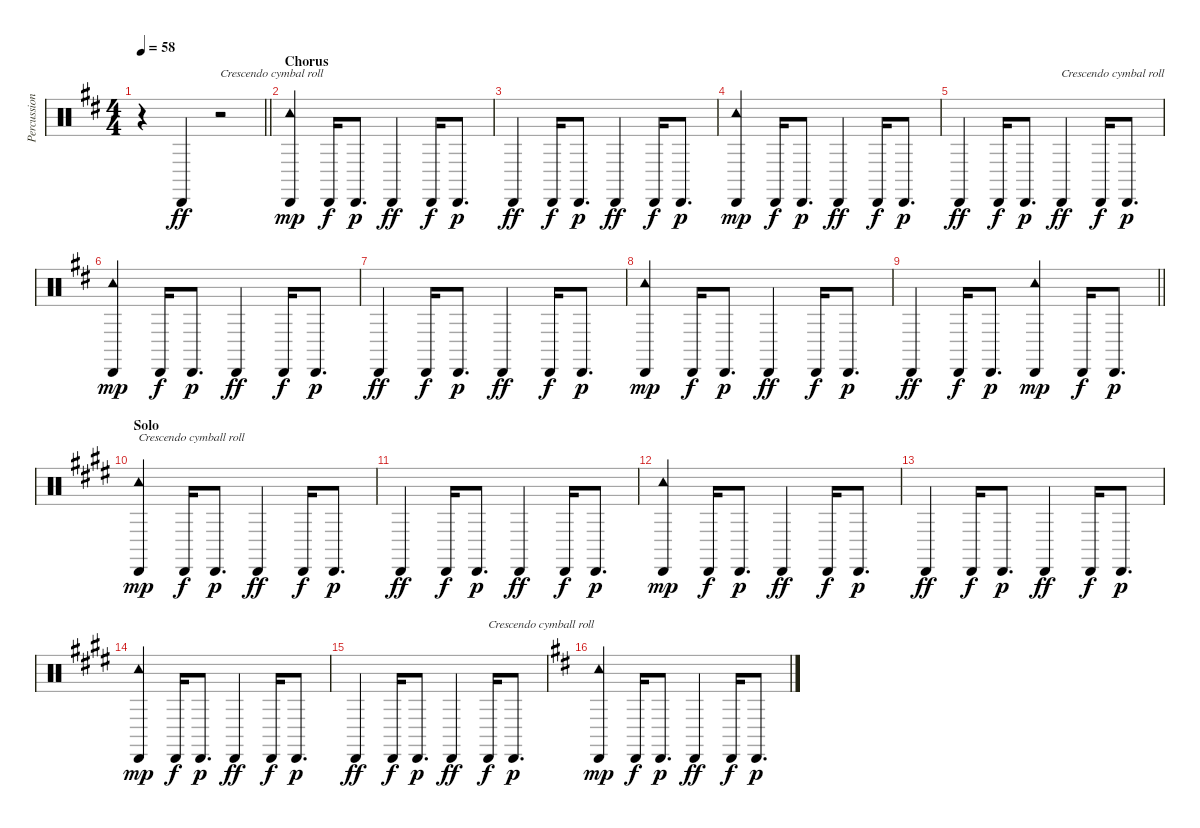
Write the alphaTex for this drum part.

\track ("Percussion" "Percussion") {instrument percussion}
\staff {score}
\articulation defaults
\ts (4 4)
\tempo 58
\clef neutral
\barLineRight lightlight
\ks bminor
r.4{dy f} "Cabasa (hit)".4{dy ff} r.2{txt "Crescendo cymbal roll"} |
\section ("" "Chorus")
("Cabasa (hit)" "Tambourine (hit)").4{dy mp} "Cabasa (hit)".16{dy f} "Cabasa (hit)".8{d dy p} "Cabasa (hit)".4{dy ff} "Cabasa (hit)".16{dy f} "Cabasa (hit)".8{d dy p} |
"Cabasa (hit)".4{dy ff} "Cabasa (hit)".16{dy f} "Cabasa (hit)".8{d dy p} "Cabasa (hit)".4{dy ff} "Cabasa (hit)".16{dy f} "Cabasa (hit)".8{d dy p} |
("Cabasa (hit)" "Tambourine (hit)").4{dy mp} "Cabasa (hit)".16{dy f} "Cabasa (hit)".8{d dy p} "Cabasa (hit)".4{dy ff} "Cabasa (hit)".16{dy f} "Cabasa (hit)".8{d dy p} |
"Cabasa (hit)".4{dy ff} "Cabasa (hit)".16{dy f} "Cabasa (hit)".8{d dy p} "Cabasa (hit)".4{txt "Crescendo cymbal roll" dy ff} "Cabasa (hit)".16{dy f} "Cabasa (hit)".8{d dy p} |
("Cabasa (hit)" "Tambourine (hit)").4{dy mp} "Cabasa (hit)".16{dy f} "Cabasa (hit)".8{d dy p} "Cabasa (hit)".4{dy ff} "Cabasa (hit)".16{dy f} "Cabasa (hit)".8{d dy p} |
"Cabasa (hit)".4{dy ff} "Cabasa (hit)".16{dy f} "Cabasa (hit)".8{d dy p} "Cabasa (hit)".4{dy ff} "Cabasa (hit)".16{dy f} "Cabasa (hit)".8{d dy p} |
("Cabasa (hit)" "Tambourine (hit)").4{dy mp} "Cabasa (hit)".16{dy f} "Cabasa (hit)".8{d dy p} "Cabasa (hit)".4{dy ff} "Cabasa (hit)".16{dy f} "Cabasa (hit)".8{d dy p} |
\barLineRight lightlight "Cabasa (hit)".4{dy ff} "Cabasa (hit)".16{dy f} "Cabasa (hit)".8{d dy p}
("Cabasa (hit)" "Tambourine (hit)").4{dy mp} "Cabasa (hit)".16{dy f} "Cabasa (hit)".8{d dy p} |
\section ("" "Solo")
\ks c#minor
("Cabasa (hit)" "Tambourine (hit)").4{txt "Crescendo cymball roll" dy mp} "Cabasa (hit)".16{dy f} "Cabasa (hit)".8{d dy p} "Cabasa (hit)".4{dy ff} "Cabasa (hit)".16{dy f} "Cabasa (hit)".8{d dy p} |
"Cabasa (hit)".4{dy ff} "Cabasa (hit)".16{dy f} "Cabasa (hit)".8{d dy p} "Cabasa (hit)".4{dy ff} "Cabasa (hit)".16{dy f} "Cabasa (hit)".8{d dy p} |
("Cabasa (hit)" "Tambourine (hit)").4{dy mp} "Cabasa (hit)".16{dy f} "Cabasa (hit)".8{d dy p} "Cabasa (hit)".4{dy ff} "Cabasa (hit)".16{dy f} "Cabasa (hit)".8{d dy p} |
"Cabasa (hit)".4{dy ff} "Cabasa (hit)".16{dy f} "Cabasa (hit)".8{d dy p} "Cabasa (hit)".4{dy ff} "Cabasa (hit)".16{dy f} "Cabasa (hit)".8{d dy p} |
("Cabasa (hit)" "Tambourine (hit)").4{dy mp} "Cabasa (hit)".16{dy f} "Cabasa (hit)".8{d dy p} "Cabasa (hit)".4{dy ff} "Cabasa (hit)".16{dy f} "Cabasa (hit)".8{d dy p} |
"Cabasa (hit)".4{dy ff} "Cabasa (hit)".16{dy f} "Cabasa (hit)".8{d dy p} "Cabasa (hit)".4{dy ff} "Cabasa (hit)".16{txt "Crescendo cymball roll" dy f} "Cabasa (hit)".8{d dy p} |
\ks bminor
("Cabasa (hit)" "Tambourine (hit)").4{dy mp} "Cabasa (hit)".16{dy f} "Cabasa (hit)".8{d dy p} "Cabasa (hit)".4{dy ff} "Cabasa (hit)".16{dy f} "Cabasa (hit)".8{d dy p}
